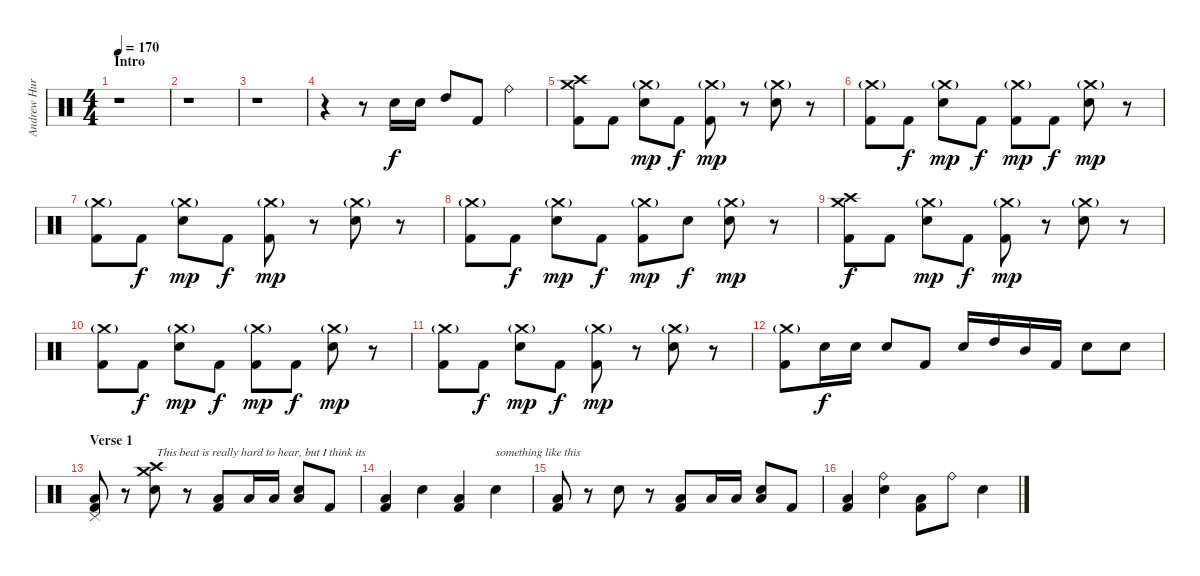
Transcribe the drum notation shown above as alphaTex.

\track ("Andrew Hurley (Drums)" "Andrew Hur") {instrument percussion}
\staff {score}
\articulation defaults
\ts (4 4)
\section ("" "Intro")
\tempo 170
\clef neutral
\ks c
r.1{dy f} |
r.1 |
r.1 |
r.4 r.8 "Electric Snare (hit)".16 "Electric Snare (hit)".16 "High Tom (hit)".8 "Kick (hit) 2".8 "Ride (bell)".4 |
("Crash medium (hit)" "Crash high (hit)" "Kick (hit) 2").8 "Kick (hit) 2".8 ("Crash medium (hit)"{g} "Electric Snare (hit)").8{dy mp} "Kick (hit) 2".8{dy f} ("Crash medium (hit)"{g} "Kick (hit) 2").8{dy mp} r.8 ("Crash medium (hit)"{g} "Electric Snare (hit)").8 r.8 |
("Crash medium (hit)"{g} "Kick (hit) 2").8 "Kick (hit) 2".8{dy f} ("Crash medium (hit)"{g} "Electric Snare (hit)").8{dy mp} "Kick (hit) 2".8{dy f} ("Crash medium (hit)"{g} "Kick (hit) 2").8{dy mp} "Kick (hit) 2".8{dy f} ("Crash medium (hit)"{g} "Electric Snare (hit)").8{dy mp} r.8 |
("Crash medium (hit)"{g} "Kick (hit) 2").8 "Kick (hit) 2".8{dy f} ("Crash medium (hit)"{g} "Electric Snare (hit)").8{dy mp} "Kick (hit) 2".8{dy f} ("Crash medium (hit)"{g} "Kick (hit) 2").8{dy mp} r.8 ("Crash medium (hit)"{g} "Electric Snare (hit)").8 r.8 |
("Crash medium (hit)"{g} "Kick (hit) 2").8 "Kick (hit) 2".8{dy f} ("Crash medium (hit)"{g} "Electric Snare (hit)").8{dy mp} "Kick (hit) 2".8{dy f} ("Crash medium (hit)"{g} "Kick (hit) 2").8{dy mp} "Electric Snare (hit)".8{dy f} ("Crash medium (hit)"{g} "Electric Snare (hit)").8{dy mp} r.8 |
("Crash medium (hit)" "Crash high (hit)" "Kick (hit) 2").8{dy f} "Kick (hit) 2".8 ("Crash medium (hit)"{g} "Electric Snare (hit)").8{dy mp} "Kick (hit) 2".8{dy f} ("Crash medium (hit)"{g} "Kick (hit) 2").8{dy mp} r.8 ("Crash medium (hit)"{g} "Electric Snare (hit)").8 r.8 |
("Crash medium (hit)"{g} "Kick (hit) 2").8 "Kick (hit) 2".8{dy f} ("Crash medium (hit)"{g} "Electric Snare (hit)").8{dy mp} "Kick (hit) 2".8{dy f} ("Crash medium (hit)"{g} "Kick (hit) 2").8{dy mp} "Kick (hit) 2".8{dy f} ("Crash medium (hit)"{g} "Electric Snare (hit)").8{dy mp} r.8 |
("Crash medium (hit)"{g} "Kick (hit) 2").8 "Kick (hit) 2".8{dy f} ("Crash medium (hit)"{g} "Electric Snare (hit)").8{dy mp} "Kick (hit) 2".8{dy f} ("Crash medium (hit)"{g} "Kick (hit) 2").8{dy mp} r.8 ("Crash medium (hit)"{g} "Electric Snare (hit)").8 r.8 |
("Crash medium (hit)"{g} "Kick (hit) 2").8 "Electric Snare (hit)".16{dy f} "Electric Snare (hit)".16 "Electric Snare (hit)".8 "Kick (hit) 2".8 "Electric Snare (hit)".16 "High Tom (hit)".16 "Mid Tom (hit)".16 "Kick (hit) 2".16 "Electric Snare (hit)".8 "Electric Snare (hit)".8 |
\section ("" "Verse 1")
("Pedal Hi-Hat (hit)" "Kick (hit) 2" "Low Floor Tom (hit)").8 r.8 ("Crash medium (hit)" "Crash high (hit)" "Electric Snare (hit)").8{txt "This beat is really hard to hear, but I think its"} r.8 ("Kick (hit) 2" "Low Floor Tom (hit)").8 "Low Floor Tom (hit)".16 "Low Floor Tom (hit)".16 ("Electric Snare (hit)" "Low Floor Tom (hit)").8 "Kick (hit) 2".8 |
("Kick (hit) 2" "Low Floor Tom (hit)").4 "Electric Snare (hit)".4 ("Kick (hit) 2" "Low Floor Tom (hit)").4 "Electric Snare (hit)".4{txt "something like this"} |
("Kick (hit) 2" "Low Floor Tom (hit)").8 r.8 "Electric Snare (hit)".8 r.8 ("Kick (hit) 2" "Low Floor Tom (hit)").8 "Low Floor Tom (hit)".16 "Low Floor Tom (hit)".16 ("Electric Snare (hit)" "Low Floor Tom (hit)").8 "Kick (hit) 2".8 |
("Kick (hit) 2" "Low Floor Tom (hit)").4 ("Ride (bell)" "Electric Snare (hit)").4 ("Kick (hit) 2" "Low Floor Tom (hit)").8 "Ride (bell)".8 "Electric Snare (hit)".4
